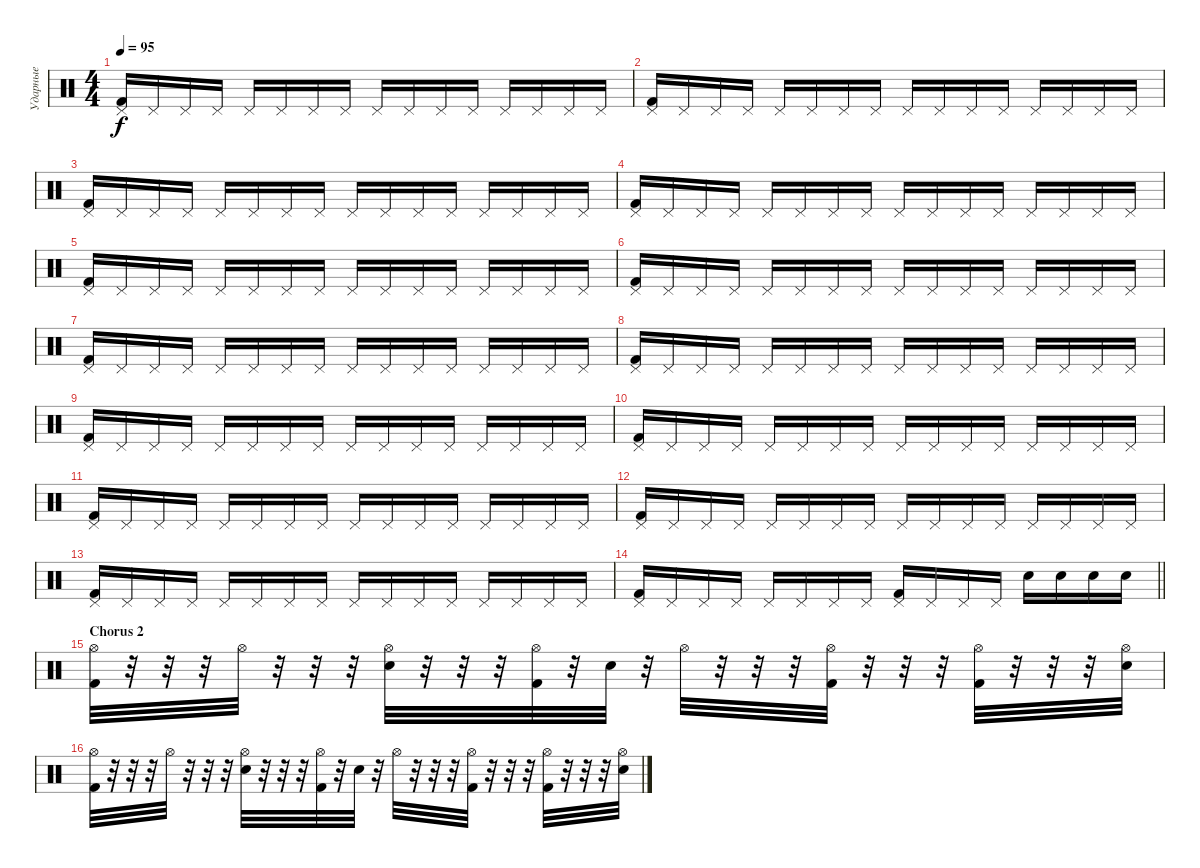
\track ("Ударные" "Ударные") {instrument percussion}
\staff {score}
\articulation defaults
\ts (4 4)
\tempo 95
\clef neutral
\ks c
("Pedal Hi-Hat (hit)" "Kick (hit) 2").16{dy f} "Pedal Hi-Hat (hit)".16 "Pedal Hi-Hat (hit)".16 "Pedal Hi-Hat (hit)".16 "Pedal Hi-Hat (hit)".16 "Pedal Hi-Hat (hit)".16 "Pedal Hi-Hat (hit)".16 "Pedal Hi-Hat (hit)".16 "Pedal Hi-Hat (hit)".16 "Pedal Hi-Hat (hit)".16 "Pedal Hi-Hat (hit)".16 "Pedal Hi-Hat (hit)".16 "Pedal Hi-Hat (hit)".16 "Pedal Hi-Hat (hit)".16 "Pedal Hi-Hat (hit)".16 "Pedal Hi-Hat (hit)".16 |
("Pedal Hi-Hat (hit)" "Kick (hit) 2").16 "Pedal Hi-Hat (hit)".16 "Pedal Hi-Hat (hit)".16 "Pedal Hi-Hat (hit)".16 "Pedal Hi-Hat (hit)".16 "Pedal Hi-Hat (hit)".16 "Pedal Hi-Hat (hit)".16 "Pedal Hi-Hat (hit)".16 "Pedal Hi-Hat (hit)".16 "Pedal Hi-Hat (hit)".16 "Pedal Hi-Hat (hit)".16 "Pedal Hi-Hat (hit)".16 "Pedal Hi-Hat (hit)".16 "Pedal Hi-Hat (hit)".16 "Pedal Hi-Hat (hit)".16 "Pedal Hi-Hat (hit)".16 |
("Pedal Hi-Hat (hit)" "Kick (hit) 2").16 "Pedal Hi-Hat (hit)".16 "Pedal Hi-Hat (hit)".16 "Pedal Hi-Hat (hit)".16 "Pedal Hi-Hat (hit)".16 "Pedal Hi-Hat (hit)".16 "Pedal Hi-Hat (hit)".16 "Pedal Hi-Hat (hit)".16 "Pedal Hi-Hat (hit)".16 "Pedal Hi-Hat (hit)".16 "Pedal Hi-Hat (hit)".16 "Pedal Hi-Hat (hit)".16 "Pedal Hi-Hat (hit)".16 "Pedal Hi-Hat (hit)".16 "Pedal Hi-Hat (hit)".16 "Pedal Hi-Hat (hit)".16 |
("Pedal Hi-Hat (hit)" "Kick (hit) 2").16 "Pedal Hi-Hat (hit)".16 "Pedal Hi-Hat (hit)".16 "Pedal Hi-Hat (hit)".16 "Pedal Hi-Hat (hit)".16 "Pedal Hi-Hat (hit)".16 "Pedal Hi-Hat (hit)".16 "Pedal Hi-Hat (hit)".16 "Pedal Hi-Hat (hit)".16 "Pedal Hi-Hat (hit)".16 "Pedal Hi-Hat (hit)".16 "Pedal Hi-Hat (hit)".16 "Pedal Hi-Hat (hit)".16 "Pedal Hi-Hat (hit)".16 "Pedal Hi-Hat (hit)".16 "Pedal Hi-Hat (hit)".16 |
("Pedal Hi-Hat (hit)" "Kick (hit) 2").16 "Pedal Hi-Hat (hit)".16 "Pedal Hi-Hat (hit)".16 "Pedal Hi-Hat (hit)".16 "Pedal Hi-Hat (hit)".16 "Pedal Hi-Hat (hit)".16 "Pedal Hi-Hat (hit)".16 "Pedal Hi-Hat (hit)".16 "Pedal Hi-Hat (hit)".16 "Pedal Hi-Hat (hit)".16 "Pedal Hi-Hat (hit)".16 "Pedal Hi-Hat (hit)".16 "Pedal Hi-Hat (hit)".16 "Pedal Hi-Hat (hit)".16 "Pedal Hi-Hat (hit)".16 "Pedal Hi-Hat (hit)".16 |
("Pedal Hi-Hat (hit)" "Kick (hit) 2").16 "Pedal Hi-Hat (hit)".16 "Pedal Hi-Hat (hit)".16 "Pedal Hi-Hat (hit)".16 "Pedal Hi-Hat (hit)".16 "Pedal Hi-Hat (hit)".16 "Pedal Hi-Hat (hit)".16 "Pedal Hi-Hat (hit)".16 "Pedal Hi-Hat (hit)".16 "Pedal Hi-Hat (hit)".16 "Pedal Hi-Hat (hit)".16 "Pedal Hi-Hat (hit)".16 "Pedal Hi-Hat (hit)".16 "Pedal Hi-Hat (hit)".16 "Pedal Hi-Hat (hit)".16 "Pedal Hi-Hat (hit)".16 |
("Pedal Hi-Hat (hit)" "Kick (hit) 2").16{volume 13} "Pedal Hi-Hat (hit)".16 "Pedal Hi-Hat (hit)".16 "Pedal Hi-Hat (hit)".16 "Pedal Hi-Hat (hit)".16 "Pedal Hi-Hat (hit)".16 "Pedal Hi-Hat (hit)".16 "Pedal Hi-Hat (hit)".16 "Pedal Hi-Hat (hit)".16 "Pedal Hi-Hat (hit)".16 "Pedal Hi-Hat (hit)".16 "Pedal Hi-Hat (hit)".16 "Pedal Hi-Hat (hit)".16 "Pedal Hi-Hat (hit)".16 "Pedal Hi-Hat (hit)".16 "Pedal Hi-Hat (hit)".16 |
("Pedal Hi-Hat (hit)" "Kick (hit) 2").16 "Pedal Hi-Hat (hit)".16 "Pedal Hi-Hat (hit)".16 "Pedal Hi-Hat (hit)".16 "Pedal Hi-Hat (hit)".16 "Pedal Hi-Hat (hit)".16 "Pedal Hi-Hat (hit)".16 "Pedal Hi-Hat (hit)".16 "Pedal Hi-Hat (hit)".16 "Pedal Hi-Hat (hit)".16 "Pedal Hi-Hat (hit)".16 "Pedal Hi-Hat (hit)".16 "Pedal Hi-Hat (hit)".16 "Pedal Hi-Hat (hit)".16 "Pedal Hi-Hat (hit)".16 "Pedal Hi-Hat (hit)".16 |
("Pedal Hi-Hat (hit)" "Kick (hit) 2").16 "Pedal Hi-Hat (hit)".16 "Pedal Hi-Hat (hit)".16 "Pedal Hi-Hat (hit)".16 "Pedal Hi-Hat (hit)".16 "Pedal Hi-Hat (hit)".16 "Pedal Hi-Hat (hit)".16 "Pedal Hi-Hat (hit)".16 "Pedal Hi-Hat (hit)".16 "Pedal Hi-Hat (hit)".16 "Pedal Hi-Hat (hit)".16 "Pedal Hi-Hat (hit)".16 "Pedal Hi-Hat (hit)".16 "Pedal Hi-Hat (hit)".16 "Pedal Hi-Hat (hit)".16 "Pedal Hi-Hat (hit)".16 |
("Pedal Hi-Hat (hit)" "Kick (hit) 2").16 "Pedal Hi-Hat (hit)".16 "Pedal Hi-Hat (hit)".16 "Pedal Hi-Hat (hit)".16 "Pedal Hi-Hat (hit)".16 "Pedal Hi-Hat (hit)".16 "Pedal Hi-Hat (hit)".16 "Pedal Hi-Hat (hit)".16 "Pedal Hi-Hat (hit)".16 "Pedal Hi-Hat (hit)".16 "Pedal Hi-Hat (hit)".16 "Pedal Hi-Hat (hit)".16 "Pedal Hi-Hat (hit)".16 "Pedal Hi-Hat (hit)".16 "Pedal Hi-Hat (hit)".16 "Pedal Hi-Hat (hit)".16 |
("Pedal Hi-Hat (hit)" "Kick (hit) 2").16 "Pedal Hi-Hat (hit)".16 "Pedal Hi-Hat (hit)".16 "Pedal Hi-Hat (hit)".16 "Pedal Hi-Hat (hit)".16 "Pedal Hi-Hat (hit)".16 "Pedal Hi-Hat (hit)".16 "Pedal Hi-Hat (hit)".16 "Pedal Hi-Hat (hit)".16 "Pedal Hi-Hat (hit)".16 "Pedal Hi-Hat (hit)".16 "Pedal Hi-Hat (hit)".16 "Pedal Hi-Hat (hit)".16 "Pedal Hi-Hat (hit)".16 "Pedal Hi-Hat (hit)".16 "Pedal Hi-Hat (hit)".16 |
("Pedal Hi-Hat (hit)" "Kick (hit) 2").16 "Pedal Hi-Hat (hit)".16 "Pedal Hi-Hat (hit)".16 "Pedal Hi-Hat (hit)".16 "Pedal Hi-Hat (hit)".16 "Pedal Hi-Hat (hit)".16 "Pedal Hi-Hat (hit)".16 "Pedal Hi-Hat (hit)".16 "Pedal Hi-Hat (hit)".16 "Pedal Hi-Hat (hit)".16 "Pedal Hi-Hat (hit)".16 "Pedal Hi-Hat (hit)".16 "Pedal Hi-Hat (hit)".16 "Pedal Hi-Hat (hit)".16 "Pedal Hi-Hat (hit)".16 "Pedal Hi-Hat (hit)".16 |
("Pedal Hi-Hat (hit)" "Kick (hit) 2").16 "Pedal Hi-Hat (hit)".16 "Pedal Hi-Hat (hit)".16 "Pedal Hi-Hat (hit)".16 "Pedal Hi-Hat (hit)".16 "Pedal Hi-Hat (hit)".16 "Pedal Hi-Hat (hit)".16 "Pedal Hi-Hat (hit)".16 "Pedal Hi-Hat (hit)".16 "Pedal Hi-Hat (hit)".16 "Pedal Hi-Hat (hit)".16 "Pedal Hi-Hat (hit)".16 "Pedal Hi-Hat (hit)".16 "Pedal Hi-Hat (hit)".16 "Pedal Hi-Hat (hit)".16 "Pedal Hi-Hat (hit)".16 |
\barLineRight lightlight
("Pedal Hi-Hat (hit)" "Kick (hit) 2").16 "Pedal Hi-Hat (hit)".16 "Pedal Hi-Hat (hit)".16 "Pedal Hi-Hat (hit)".16 "Pedal Hi-Hat (hit)".16 "Pedal Hi-Hat (hit)".16 "Pedal Hi-Hat (hit)".16 "Pedal Hi-Hat (hit)".16 ("Pedal Hi-Hat (hit)" "Kick (hit) 2").16 "Pedal Hi-Hat (hit)".16 "Pedal Hi-Hat (hit)".16 "Pedal Hi-Hat (hit)".16 "Snare (hit) 2".16 "Snare (hit) 2".16 "Snare (hit) 2".16 "Snare (hit) 2".16 |
\section ("" "Chorus 2")
("Hi-Hat (open)" "Kick (hit) 2").32{volume 13} r.32 r.32 r.32 "Hi-Hat (open)".32 r.32 r.32 r.32 ("Hi-Hat (open)" "Snare (hit) 2").32 r.32 r.32 r.32 ("Hi-Hat (open)" "Kick (hit) 2").32 r.32 "Snare (hit) 2".32 r.32 "Hi-Hat (open)".32 r.32 r.32 r.32 ("Hi-Hat (open)" "Kick (hit) 2").32 r.32 r.32 r.32 ("Hi-Hat (open)" "Kick (hit) 2").32 r.32 r.32 r.32 ("Hi-Hat (open)" "Snare (hit) 2").32 |
("Hi-Hat (open)" "Kick (hit) 2").32 r.32 r.32 r.32 "Hi-Hat (open)".32 r.32 r.32 r.32 ("Hi-Hat (open)" "Snare (hit) 2").32 r.32 r.32 r.32 ("Hi-Hat (open)" "Kick (hit) 2").32 r.32 "Snare (hit) 2".32 r.32 "Hi-Hat (open)".32 r.32 r.32 r.32 ("Hi-Hat (open)" "Kick (hit) 2").32 r.32 r.32 r.32 ("Hi-Hat (open)" "Kick (hit) 2").32 r.32 r.32 r.32 ("Hi-Hat (open)" "Snare (hit) 2").32
